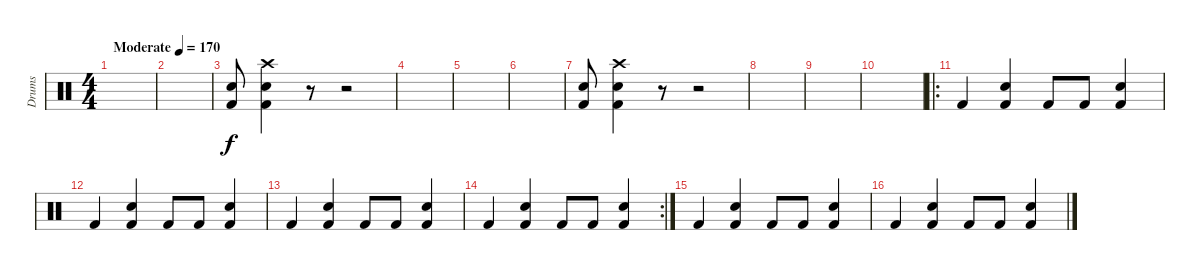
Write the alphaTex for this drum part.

\track ("Drums" "Drums") {instrument percussion}
\staff {score}
\articulation defaults
\ts (4 4)
\tempo (170 "Moderate")
\clef neutral
\ks c
|
|
("Kick (hit) 2" "Snare (hit) 2").8 ("Kick (hit) 2" "Snare (hit) 2" "Crash high (hit)").4 r.8 r.2 |
|
|
|
("Kick (hit) 2" "Snare (hit) 2").8 ("Kick (hit) 2" "Snare (hit) 2" "Crash high (hit)").4 r.8 r.2 |
|
|
|
\ro "Kick (hit) 2".4
("Kick (hit) 2" "Snare (hit) 2").4 "Kick (hit) 2".8 "Kick (hit) 2".8 ("Kick (hit) 2" "Snare (hit) 2").4 |
"Kick (hit) 2".4 ("Kick (hit) 2" "Snare (hit) 2").4 "Kick (hit) 2".8 "Kick (hit) 2".8 ("Kick (hit) 2" "Snare (hit) 2").4 |
"Kick (hit) 2".4 ("Kick (hit) 2" "Snare (hit) 2").4 "Kick (hit) 2".8 "Kick (hit) 2".8 ("Kick (hit) 2" "Snare (hit) 2").4 |
\rc 2 "Kick (hit) 2".4
("Kick (hit) 2" "Snare (hit) 2").4 "Kick (hit) 2".8 "Kick (hit) 2".8 ("Kick (hit) 2" "Snare (hit) 2").4 |
"Kick (hit) 2".4 ("Kick (hit) 2" "Snare (hit) 2").4 "Kick (hit) 2".8 "Kick (hit) 2".8 ("Kick (hit) 2" "Snare (hit) 2").4 |
"Kick (hit) 2".4 ("Kick (hit) 2" "Snare (hit) 2").4 "Kick (hit) 2".8 "Kick (hit) 2".8 ("Kick (hit) 2" "Snare (hit) 2").4
